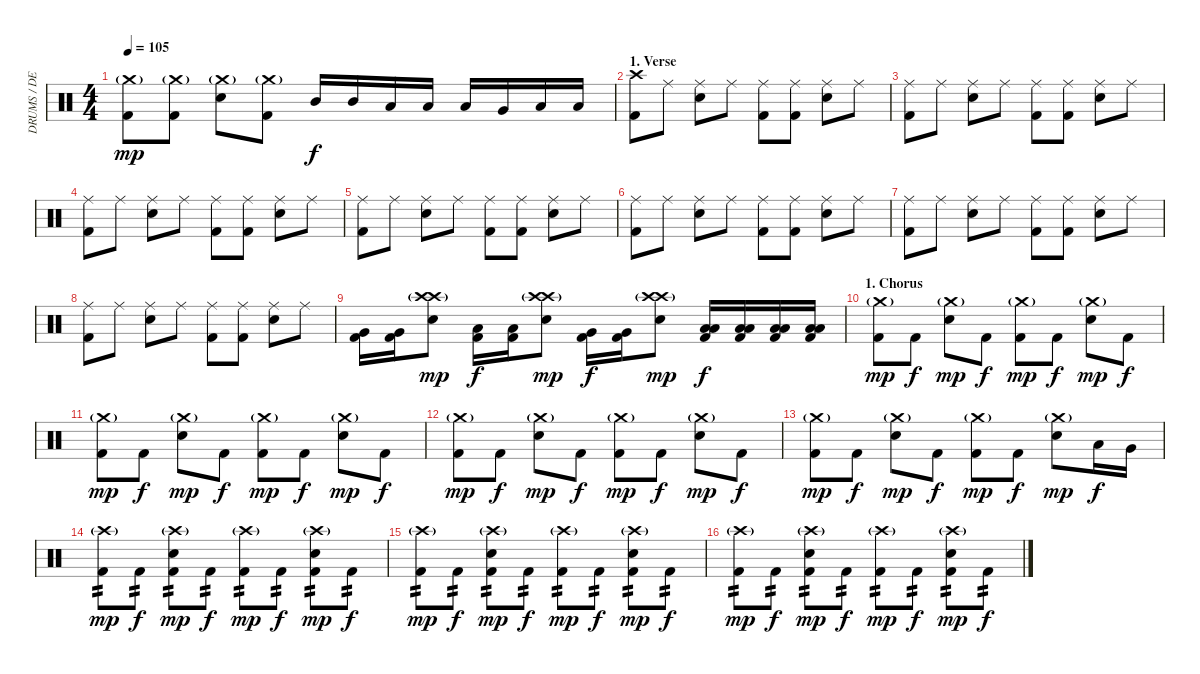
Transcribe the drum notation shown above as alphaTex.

\track ("DRUMS / DENNn!S" "DRUMS / DE") {instrument percussion}
\staff {score}
\articulation defaults
\ts (4 4)
\tempo 105
\clef neutral
\ks c
("Crash medium (hit)"{g} "Kick (hit) 2").8{dy mp} ("Crash medium (hit)"{g} "Kick (hit) 2").8 ("Crash medium (hit)"{g} "Electric Snare (hit)").8 ("Crash medium (hit)"{g} "Kick (hit) 2").8 "Mid Tom (hit)".16{dy f} "Mid Tom (hit)".16 "Low Tom (hit)".16 "Low Tom (hit)".16 "Low Tom (hit)".16 "Very Low Tom (hit)".16 "Low Floor Tom (hit)".16 "Low Floor Tom (hit)".16 |
\section ("" "1. Verse")
("Crash high (hit)" "Kick (hit) 2").8 "Ride (middle)".8 ("Ride (middle)" "Electric Snare (hit)").8 "Ride (middle)".8 ("Ride (middle)" "Kick (hit) 2").8 ("Ride (middle)" "Kick (hit) 2").8 ("Ride (middle)" "Electric Snare (hit)").8 "Ride (middle)".8 |
("Ride (middle)" "Kick (hit) 2").8 "Ride (middle)".8 ("Ride (middle)" "Electric Snare (hit)").8 "Ride (middle)".8 ("Ride (middle)" "Kick (hit) 2").8 ("Ride (middle)" "Kick (hit) 2").8 ("Ride (middle)" "Electric Snare (hit)").8 "Ride (middle)".8 |
("Ride (middle)" "Kick (hit) 2").8 "Ride (middle)".8 ("Ride (middle)" "Electric Snare (hit)").8 "Ride (middle)".8 ("Ride (middle)" "Kick (hit) 2").8 ("Ride (middle)" "Kick (hit) 2").8 ("Ride (middle)" "Electric Snare (hit)").8 "Ride (middle)".8 |
("Ride (middle)" "Kick (hit) 2").8 "Ride (middle)".8 ("Ride (middle)" "Electric Snare (hit)").8 "Ride (middle)".8 ("Ride (middle)" "Kick (hit) 2").8 ("Ride (middle)" "Kick (hit) 2").8 ("Ride (middle)" "Electric Snare (hit)").8 "Ride (middle)".8 |
("Ride (middle)" "Kick (hit) 2").8 "Ride (middle)".8 ("Ride (middle)" "Electric Snare (hit)").8 "Ride (middle)".8 ("Ride (middle)" "Kick (hit) 2").8 ("Ride (middle)" "Kick (hit) 2").8 ("Ride (middle)" "Electric Snare (hit)").8 "Ride (middle)".8 |
("Ride (middle)" "Kick (hit) 2").8 "Ride (middle)".8 ("Ride (middle)" "Electric Snare (hit)").8 "Ride (middle)".8 ("Ride (middle)" "Kick (hit) 2").8 ("Ride (middle)" "Kick (hit) 2").8 ("Ride (middle)" "Electric Snare (hit)").8 "Ride (middle)".8 |
("Ride (middle)" "Kick (hit) 2").8 "Ride (middle)".8 ("Ride (middle)" "Electric Snare (hit)").8 "Ride (middle)".8 ("Ride (middle)" "Kick (hit) 2").8 ("Ride (middle)" "Kick (hit) 2").8 ("Ride (middle)" "Electric Snare (hit)").8 "Ride (middle)".8 |
("Very Low Tom (hit)" "Kick (hit) 2").16 ("Very Low Tom (hit)" "Kick (hit) 2").16 ("Crash high (hit)"{g} "Crash high (hit)"{g} "Electric Snare (hit)").8{dy mp} ("Low Tom (hit)" "Kick (hit) 2").16{dy f} ("Low Tom (hit)" "Kick (hit) 2").16 ("Crash high (hit)"{g} "Crash high (hit)"{g} "Electric Snare (hit)").8{dy mp} ("Very Low Tom (hit)" "Kick (hit) 2").16{dy f} ("Very Low Tom (hit)" "Kick (hit) 2").16 ("Crash high (hit)"{g} "Crash high (hit)"{g} "Electric Snare (hit)").8{dy mp} ("Low Tom (hit)" "Low Floor Tom (hit)" "Kick (hit) 2").16{dy f} ("Low Tom (hit)" "Low Floor Tom (hit)" "Kick (hit) 2").16 ("Low Tom (hit)" "Low Floor Tom (hit)" "Kick (hit) 2").16 ("Low Tom (hit)" "Low Floor Tom (hit)" "Kick (hit) 2").16 |
\section ("" "1. Chorus")
("Crash medium (hit)"{g} "Kick (hit) 2").8{dy mp} "Kick (hit) 2".8{dy f} ("Crash medium (hit)"{g} "Electric Snare (hit)").8{dy mp} "Kick (hit) 2".8{dy f} ("Crash medium (hit)"{g} "Kick (hit) 2").8{dy mp} "Kick (hit) 2".8{dy f} ("Crash medium (hit)"{g} "Electric Snare (hit)").8{dy mp} "Kick (hit) 2".8{dy f} |
("Crash medium (hit)"{g} "Kick (hit) 2").8{dy mp} "Kick (hit) 2".8{dy f} ("Crash medium (hit)"{g} "Electric Snare (hit)").8{dy mp} "Kick (hit) 2".8{dy f} ("Crash medium (hit)"{g} "Kick (hit) 2").8{dy mp} "Kick (hit) 2".8{dy f} ("Crash medium (hit)"{g} "Electric Snare (hit)").8{dy mp} "Kick (hit) 2".8{dy f} |
("Crash medium (hit)"{g} "Kick (hit) 2").8{dy mp} "Kick (hit) 2".8{dy f} ("Crash medium (hit)"{g} "Electric Snare (hit)").8{dy mp} "Kick (hit) 2".8{dy f} ("Crash medium (hit)"{g} "Kick (hit) 2").8{dy mp} "Kick (hit) 2".8{dy f} ("Crash medium (hit)"{g} "Electric Snare (hit)").8{dy mp} "Kick (hit) 2".8{dy f} |
("Crash medium (hit)"{g} "Kick (hit) 2").8{dy mp} "Kick (hit) 2".8{dy f} ("Crash medium (hit)"{g} "Electric Snare (hit)").8{dy mp} "Kick (hit) 2".8{dy f} ("Crash medium (hit)"{g} "Kick (hit) 2").8{dy mp} "Kick (hit) 2".8{dy f} ("Crash medium (hit)"{g} "Electric Snare (hit)").8{dy mp} "Low Floor Tom (hit)".16{dy f} "Very Low Tom (hit)".16 |
("Crash high (hit)"{g} "Kick (hit) 2").8{tp 2 dy mp} "Kick (hit) 2".8{tp 2 dy f} ("Crash high (hit)"{g} "Kick (hit) 2" "Electric Snare (hit)").8{tp 2 dy mp} "Kick (hit) 2".8{tp 2 dy f} ("Crash high (hit)"{g} "Kick (hit) 2").8{tp 2 dy mp} "Kick (hit) 2".8{tp 2 dy f} ("Crash high (hit)"{g} "Kick (hit) 2" "Electric Snare (hit)").8{tp 2 dy mp} "Kick (hit) 2".8{tp 2 dy f} |
("Crash high (hit)"{g} "Kick (hit) 2").8{tp 2 dy mp} "Kick (hit) 2".8{tp 2 dy f} ("Crash high (hit)"{g} "Kick (hit) 2" "Electric Snare (hit)").8{tp 2 dy mp} "Kick (hit) 2".8{tp 2 dy f} ("Crash high (hit)"{g} "Kick (hit) 2").8{tp 2 dy mp} "Kick (hit) 2".8{tp 2 dy f} ("Crash high (hit)"{g} "Kick (hit) 2" "Electric Snare (hit)").8{tp 2 dy mp} "Kick (hit) 2".8{tp 2 dy f} |
("Crash high (hit)"{g} "Kick (hit) 2").8{tp 2 dy mp} "Kick (hit) 2".8{tp 2 dy f} ("Crash high (hit)"{g} "Kick (hit) 2" "Electric Snare (hit)").8{tp 2 dy mp} "Kick (hit) 2".8{tp 2 dy f} ("Crash high (hit)"{g} "Kick (hit) 2").8{tp 2 dy mp} "Kick (hit) 2".8{tp 2 dy f} ("Crash high (hit)"{g} "Kick (hit) 2" "Electric Snare (hit)").8{tp 2 dy mp} "Kick (hit) 2".8{tp 2 dy f}
